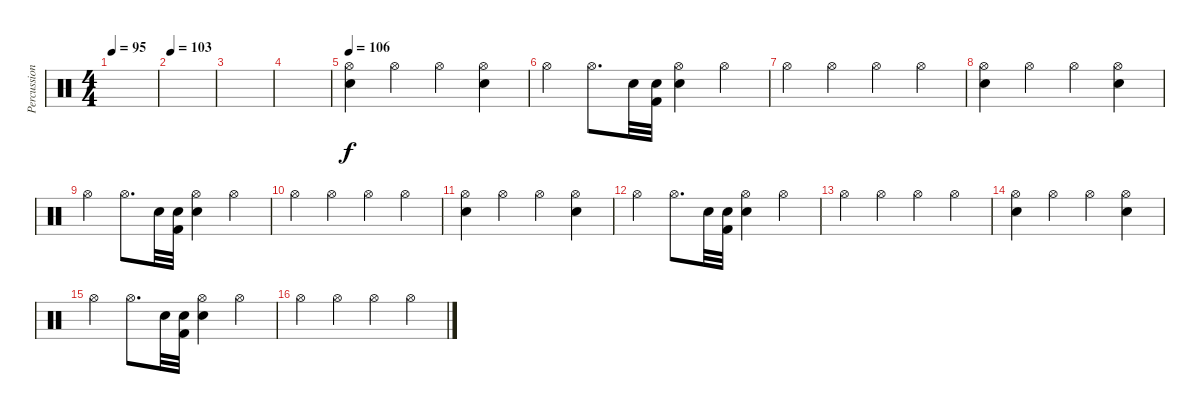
\track ("Percussion" "Percussion") {instrument percussion}
\staff {score}
\articulation defaults
\ts (4 4)
\tempo 95
\clef neutral
\ks c
|
\tempo 103
|
|
|
\tempo 106
("Snare (hit) 2" "Hi-Hat (open)").4 "Hi-Hat (open)".4 "Hi-Hat (open)".4 ("Snare (hit) 2" "Hi-Hat (open)").4 |
"Hi-Hat (open)".4 "Hi-Hat (open)".8{d} "Snare (hit) 2".32 ("Kick (hit) 2" "Snare (hit) 2").32 ("Snare (hit) 2" "Hi-Hat (open)").4 "Hi-Hat (open)".4 |
"Hi-Hat (open)".4 "Hi-Hat (open)".4 "Hi-Hat (open)".4 "Hi-Hat (open)".4 |
("Snare (hit) 2" "Hi-Hat (open)").4 "Hi-Hat (open)".4 "Hi-Hat (open)".4 ("Snare (hit) 2" "Hi-Hat (open)").4 |
"Hi-Hat (open)".4 "Hi-Hat (open)".8{d} "Snare (hit) 2".32 ("Kick (hit) 2" "Snare (hit) 2").32 ("Snare (hit) 2" "Hi-Hat (open)").4 "Hi-Hat (open)".4 |
"Hi-Hat (open)".4 "Hi-Hat (open)".4 "Hi-Hat (open)".4 "Hi-Hat (open)".4 |
("Snare (hit) 2" "Hi-Hat (open)").4 "Hi-Hat (open)".4 "Hi-Hat (open)".4 ("Snare (hit) 2" "Hi-Hat (open)").4 |
"Hi-Hat (open)".4 "Hi-Hat (open)".8{d} "Snare (hit) 2".32 ("Kick (hit) 2" "Snare (hit) 2").32 ("Snare (hit) 2" "Hi-Hat (open)").4 "Hi-Hat (open)".4 |
"Hi-Hat (open)".4 "Hi-Hat (open)".4 "Hi-Hat (open)".4 "Hi-Hat (open)".4 |
("Snare (hit) 2" "Hi-Hat (open)").4 "Hi-Hat (open)".4 "Hi-Hat (open)".4 ("Snare (hit) 2" "Hi-Hat (open)").4 |
"Hi-Hat (open)".4 "Hi-Hat (open)".8{d} "Snare (hit) 2".32 ("Kick (hit) 2" "Snare (hit) 2").32 ("Snare (hit) 2" "Hi-Hat (open)").4 "Hi-Hat (open)".4 |
"Hi-Hat (open)".4 "Hi-Hat (open)".4 "Hi-Hat (open)".4 "Hi-Hat (open)".4
